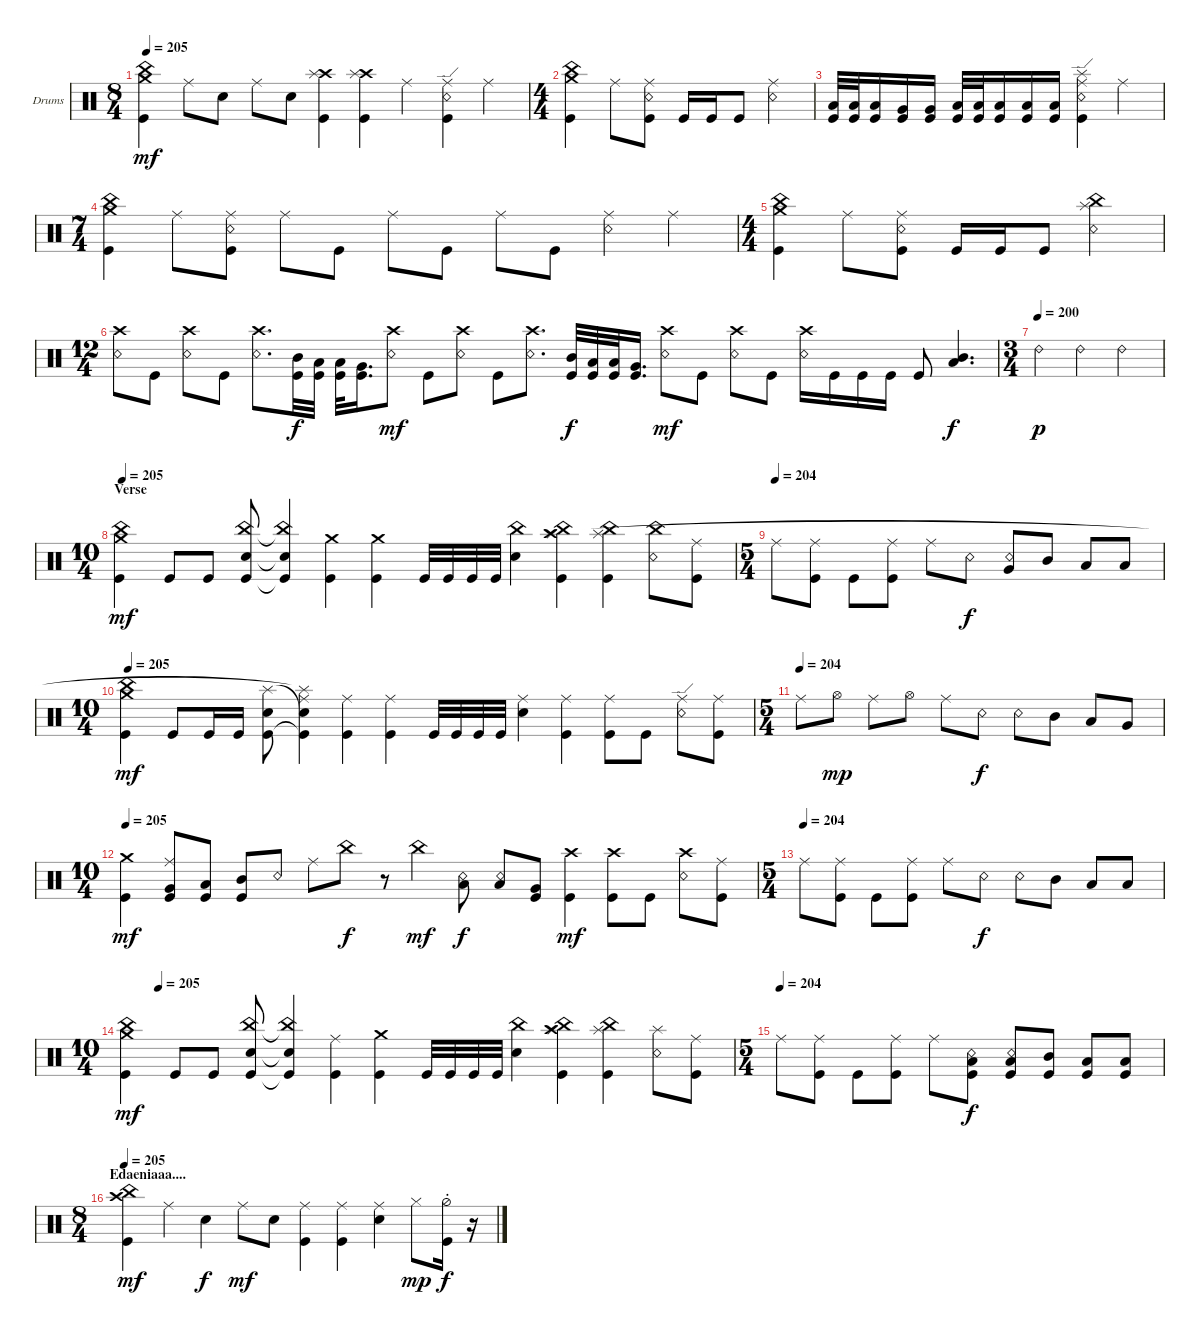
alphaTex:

\defaultSystemsLayout 4
\bracketExtendMode groupsimilarinstruments
\firstSystemTrackNameOrientation horizontal
\otherSystemsTrackNameOrientation horizontal
\track ("GordiBuena" "Drums") {instrument percussion}
\staff {score}
\articulation defaults
\ts (8 4)
\tempo 205
\clef neutral
\ks c
("Kick (hit)" "Crash medium (hit)" "China (hit)").4{dy mf} "Ride (middle)".8 "Snare (hit) 2".8 "Ride (middle)".8 "Snare (hit) 2".8 ("Kick (hit)" "Crash high (hit)" "Splash (hit)").4 ("Kick (hit)" "Crash high (hit)" "Splash (hit)").4 "Ride (middle)".4 ("Kick (hit)" "Snare (rim shot)" "Ride (edge)").4 "Ride (middle)".4 |
\ts (4 4)
("Kick (hit)" "Crash medium (hit)" "China (hit)").4 "Ride (middle)".8 ("Kick (hit)" "Snare (rim shot)" "Ride (middle)").8 "Kick (hit)".16 "Kick (hit)".16 "Kick (hit)".8 ("Snare (rim shot)" "Ride (middle)").4 |
("Kick (hit)" "Low Tom (hit)").32 ("Kick (hit)" "Low Tom (hit)").32 ("Kick (hit)" "Low Tom (hit)").16 ("Kick (hit)" "Very Low Tom (hit)").16 ("Kick (hit)" "Very Low Tom (hit)").16 ("Kick (hit)" "Low Tom (hit)").32 ("Kick (hit)" "Low Tom (hit)").32 ("Kick (hit)" "Low Tom (hit)").16 ("Kick (hit)" "Low Tom (hit)").16 ("Kick (hit)" "Low Tom (hit)").16 ("Snare (rim shot)" "Splash (hit)" "Ride (edge)" "Kick (hit)").4 "Ride (middle)".4 |
\ts (7 4)
("Kick (hit)" "Crash medium (hit)" "China (hit)").4 "Ride (middle)".8 ("Kick (hit)" "Snare (rim shot)" "Ride (middle)").8 "Ride (middle)".8 "Kick (hit)".8 "Ride (middle)".8 "Kick (hit)".8 "Ride (middle)".8 "Kick (hit)".8 ("Snare (rim shot)" "Ride (middle)").4 "Ride (middle)".4 |
\ts (4 4)
("Kick (hit)" "Crash medium (hit)" "China (hit)").4 "Ride (middle)".8 ("Kick (hit)" "Snare (rim shot)" "Ride (middle)").8 "Kick (hit)".16 "Kick (hit)".16 "Kick (hit)".8 ("Snare (rim shot)" "China (hit)" "Splash (hit)").4 |
\ts (12 4)
("Snare (rim shot)" "Crash high (hit)").8 "Kick (hit)".8 ("Snare (rim shot)" "Crash high (hit)").8 "Kick (hit)".8 ("Snare (rim shot)" "Crash high (hit)").8{d} ("Mid Tom (hit)" "Kick (hit)").32{dy f} ("Low Tom (hit)" "Kick (hit)").32 ("Low Tom (hit)" "Kick (hit)").32 ("Very Low Tom (hit)" "Kick (hit)").16{d} ("Snare (rim shot)" "Crash high (hit)").8{dy mf} "Kick (hit)".8 ("Snare (rim shot)" "Crash high (hit)").8 "Kick (hit)".8 ("Snare (rim shot)" "Crash high (hit)").8{d} ("Mid Tom (hit)" "Kick (hit)").32{dy f} ("Low Tom (hit)" "Kick (hit)").32 ("Low Tom (hit)" "Kick (hit)").32 ("Very Low Tom (hit)" "Kick (hit)").16{d} ("Snare (rim shot)" "Crash high (hit)").8{dy mf} "Kick (hit)".8 ("Snare (rim shot)" "Crash high (hit)").8 "Kick (hit)".8 ("Snare (rim shot)" "Crash high (hit)").16 "Kick (hit)".16 "Kick (hit)".16 "Kick (hit)".16 "Kick (hit)".8 ("Mid Tom (hit)" "Low Tom (hit)").4{d dy f} |
\ts (3 4)
\tempo (200)
"Ride (bell) 2".4{dy p beam merge} "Ride (bell) 2".4{beam merge} "Ride (bell) 2".4 |
\ts (10 4)
\section ("" "Verse")
\tempo 205
("Kick (hit)" "Crash medium (hit)" "China (hit)").4{dy mf} "Kick (hit)".8 "Kick (hit)".8 ("Kick (hit)" "Snare (hit) 2" "China (hit)").8 ("Kick (hit)"{t} "Snare (hit) 2"{t} "China (hit)"{t}).4 ("Kick (hit)" "Crash medium (hit)").4 ("Kick (hit)" "Crash medium (hit)").4 "Kick (hit)".32 "Kick (hit)".32 "Kick (hit)".32 "Kick (hit)".32 ("Snare (hit) 2" "China (hit)").4 ("Kick (hit)" "China (hit)" "Splash (hit)" "Crash high (hit)").4 ("Kick (hit)" "China (hit)" "Splash (hit)").4 ("Snare (rim shot)" "China (hit)").8 ("Kick (hit)" "Ride (middle)").8 |
\ts (5 4)
\tempo (204)
"Ride (middle)".8 ("Ride (middle)" "Kick (hit)").8 "Kick (hit)".8 ("Ride (middle)" "Kick (hit)").8 "Ride (middle)".8 "Snare (rim shot)".8{dy f} ("Snare (rim shot)" "Very Low Tom (hit)").8 "Mid Tom (hit)".8 "Low Tom (hit)".8 "Low Tom (hit)".8 |
\ts (10 4)
\tempo 205
\scale
0.67894 ("Kick (hit)" "Crash medium (hit)" "China (hit)").4{dy mf} "Kick (hit)".8 "Kick (hit)".16 "Kick (hit)".16 ("Kick (hit)" "Snare (hit) 2" "Splash (hit)").8 ("Kick (hit)"{t} "Ride (middle)" "Snare (hit) 2"{t} "Splash (hit)"{t}).4 ("Kick (hit)" "Ride (middle)").4 ("Kick (hit)" "Ride (middle)").4 "Kick (hit)".32 "Kick (hit)".32 "Kick (hit)".32 "Kick (hit)".32 ("Snare (hit) 2" "Ride (middle)").4 ("Kick (hit)" "Ride (middle)").4 ("Kick (hit)" "Ride (middle)").8 "Kick (hit)".8 ("Snare (rim shot)" "Ride (edge)").8 ("Kick (hit)" "Ride (middle)").8 |
\ts (5 4)
\tempo 204
\scale
0.32106 "Ride (middle)".8 "Hi-Hat (open)".8{dy mp} "Ride (middle)".8 "Hi-Hat (open)".8 "Ride (middle)".8 "Snare (rim shot)".8{dy f} "Snare (rim shot)".8 "Mid Tom (hit)".8 "Low Tom (hit)".8 "Very Low Tom (hit)".8 |
\ts (10 4)
\tempo 205
("Kick (hit)" "Crash medium (hit)").4{dy mf} ("Kick (hit)" "Ride (middle)" "Very Low Tom (hit)").8 ("Kick (hit)" "Low Tom (hit)").8 ("Kick (hit)" "Mid Tom (hit)").8 "Snare (rim shot)".8 "Ride (middle)".8 "China (hit)".8{dy f} r.8 "China (hit)".4{dy mf} ("Snare (rim shot)" "Low Tom (hit)").8{dy f} ("Snare (rim shot)" "Low Tom (hit)").8 ("Very Low Tom (hit)" "Kick (hit)").8 ("Kick (hit)" "Crash high (hit)").4{dy mf} ("Kick (hit)" "Crash high (hit)").8 "Kick (hit)".8 ("Snare (rim shot)" "Crash high (hit)").8 ("Kick (hit)" "Ride (middle)").8 |
\ts (5 4)
\tempo (204)
"Ride (middle)".8 ("Ride (middle)" "Kick (hit)").8 "Kick (hit)".8 ("Ride (middle)" "Kick (hit)").8 "Ride (middle)".8 "Snare (rim shot)".8{dy f} "Snare (rim shot)".8 "Mid Tom (hit)".8 "Low Tom (hit)".8 "Low Tom (hit)".8 |
\ts (10 4)
\tempo (205 0.05)
("Kick (hit)" "Crash medium (hit)" "China (hit)").4{dy mf} "Kick (hit)".8 "Kick (hit)".8 ("Kick (hit)" "Snare (hit) 2" "China (hit)").8 ("Kick (hit)"{t} "Snare (hit) 2"{t} "China (hit)"{t}).4 ("Kick (hit)" "Ride (middle)").4 ("Kick (hit)" "Crash medium (hit)").4 "Kick (hit)".32 "Kick (hit)".32 "Kick (hit)".32 "Kick (hit)".32 ("Snare (hit) 2" "China (hit)").4 ("Kick (hit)" "China (hit)" "Splash (hit)" "Crash high (hit)").4 ("Kick (hit)" "China (hit)" "Splash (hit)").4 ("Snare (rim shot)" "Splash (hit)").8 ("Kick (hit)" "Ride (middle)").8 |
\ts (5 4)
\tempo (204)
"Ride (middle)".8 ("Ride (middle)" "Kick (hit)").8 "Kick (hit)".8 ("Ride (middle)" "Kick (hit)").8 "Ride (middle)".8 ("Snare (rim shot)" "Low Tom (hit)" "Kick (hit)").8{dy f} ("Snare (rim shot)" "Kick (hit)" "Low Tom (hit)").8 ("Mid Tom (hit)" "Kick (hit)").8 ("Low Tom (hit)" "Kick (hit)").8 ("Low Tom (hit)" "Kick (hit)").8 |
\ts (8 4)
\section ("" "Edaeniaaa....")
\tempo 205
\scale
0.4 ("Kick (hit)" "Crash high (hit)" "China (hit)").4{dy mf} "Ride (middle)".4 "Snare (hit) 2".4{dy f} "Ride (middle)".8{dy mf} "Snare (hit) 2".8 ("Kick (hit)" "Ride (middle)").4 ("Kick (hit)" "Ride (middle)").4 ("Snare (hit) 2" "Ride (middle)").4 "Hi-Hat (closed)".8{dy mp} ("Hi-Hat (half)"{st} "Kick (hit)"{st}).16{dy f} r.16
